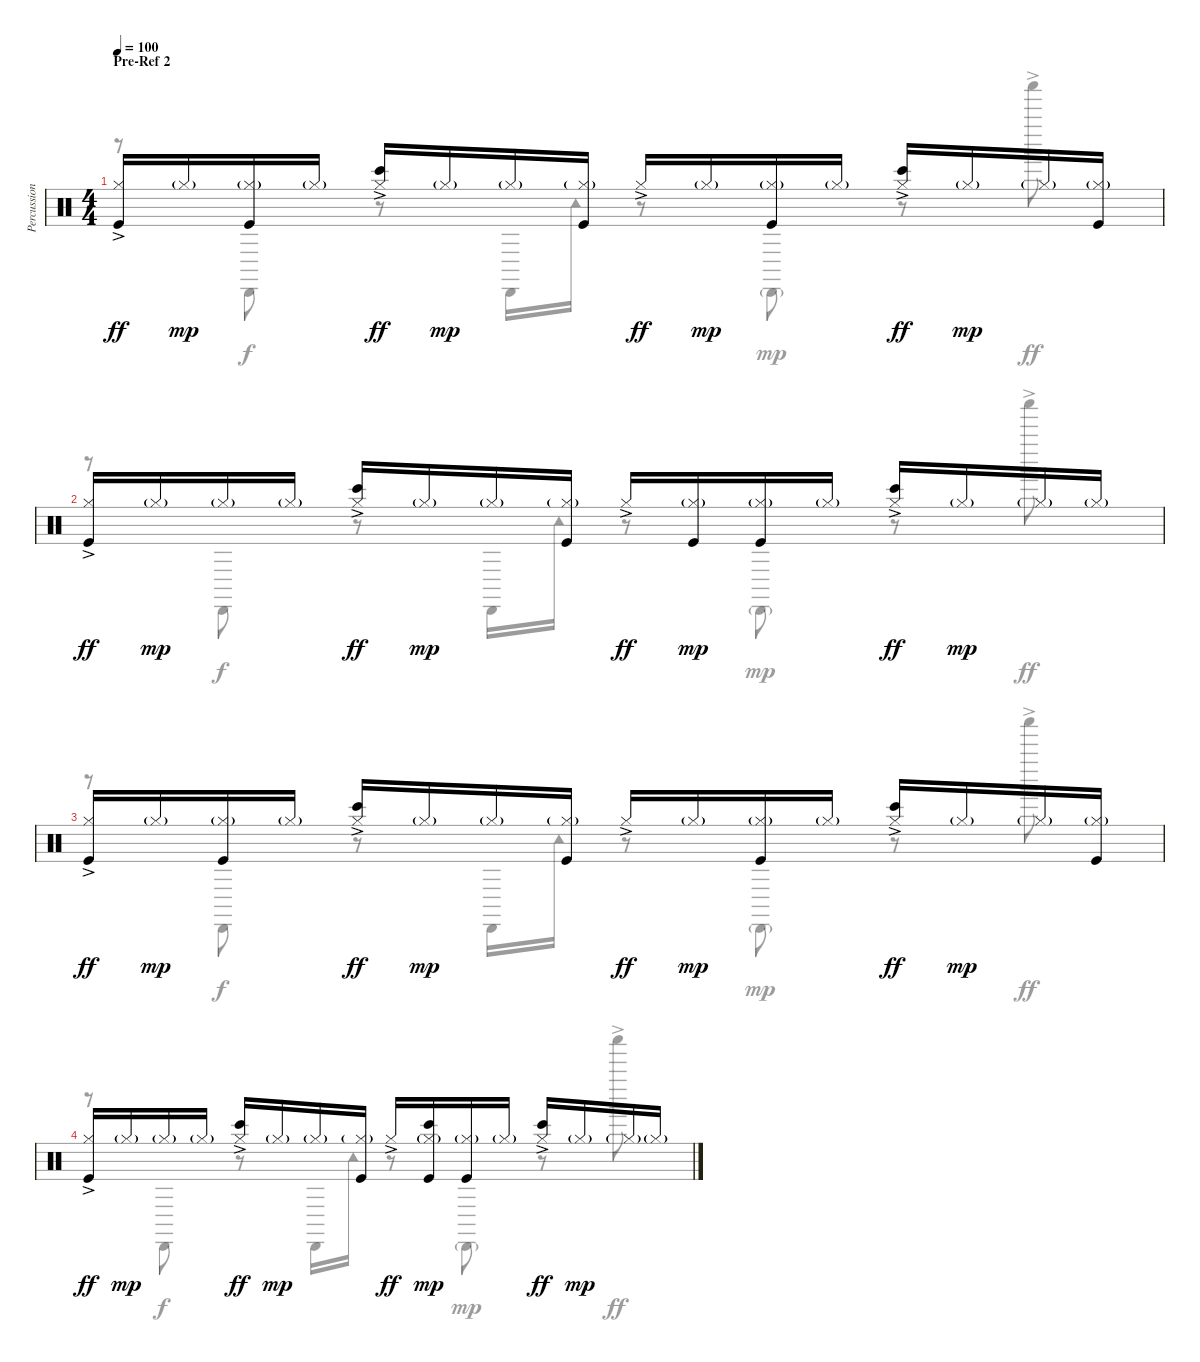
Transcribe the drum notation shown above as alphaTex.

\track ("Percussions" "Percussion") {instrument percussion}
\staff {score}
\articulation defaults
\voice
\ts (4 4)
\section ("" "Pre-Ref 2")
\tempo 100
\clef neutral
\ks c
("Kick (hit)" "Hi-Hat (closed)"{ac}).16{dy ff} "Hi-Hat (closed)"{g}.16{dy mp} ("Kick (hit)" "Hi-Hat (closed)"{g}).16 "Hi-Hat (closed)"{g}.16 ("Bongo High (hit)" "Hi-Hat (closed)"{ac}).16{dy ff} "Hi-Hat (closed)"{g}.16{dy mp} "Hi-Hat (closed)"{g}.16 ("Kick (hit)" "Hi-Hat (closed)"{g}).16 "Hi-Hat (closed)"{ac}.16{dy ff} "Hi-Hat (closed)"{g}.16{dy mp} ("Kick (hit)" "Hi-Hat (closed)"{g}).16 "Hi-Hat (closed)"{g}.16 ("Bongo High (hit)" "Hi-Hat (closed)"{ac}).16{dy ff} "Hi-Hat (closed)"{g}.16{dy mp} "Hi-Hat (closed)"{g}.16 ("Kick (hit)" "Hi-Hat (closed)"{g}).16 |
("Kick (hit)" "Hi-Hat (closed)"{ac}).16{dy ff} "Hi-Hat (closed)"{g}.16{dy mp} "Hi-Hat (closed)"{g}.16 "Hi-Hat (closed)"{g}.16 ("Bongo High (hit)" "Hi-Hat (closed)"{ac}).16{dy ff} "Hi-Hat (closed)"{g}.16{dy mp} "Hi-Hat (closed)"{g}.16 ("Kick (hit)" "Hi-Hat (closed)"{g}).16 "Hi-Hat (closed)"{ac}.16{dy ff} ("Kick (hit)" "Hi-Hat (closed)"{g}).16{dy mp} ("Kick (hit)" "Hi-Hat (closed)"{g}).16 "Hi-Hat (closed)"{g}.16 ("Bongo High (hit)" "Hi-Hat (closed)"{ac}).16{dy ff} "Hi-Hat (closed)"{g}.16{dy mp} "Hi-Hat (closed)"{g}.16 "Hi-Hat (closed)"{g}.16 |
("Kick (hit)" "Hi-Hat (closed)"{ac}).16{dy ff} "Hi-Hat (closed)"{g}.16{dy mp} ("Kick (hit)" "Hi-Hat (closed)"{g}).16 "Hi-Hat (closed)"{g}.16 ("Bongo High (hit)" "Hi-Hat (closed)"{ac}).16{dy ff} "Hi-Hat (closed)"{g}.16{dy mp} "Hi-Hat (closed)"{g}.16 ("Kick (hit)" "Hi-Hat (closed)"{g}).16 "Hi-Hat (closed)"{ac}.16{dy ff} "Hi-Hat (closed)"{g}.16{dy mp} ("Kick (hit)" "Hi-Hat (closed)"{g}).16 "Hi-Hat (closed)"{g}.16 ("Bongo High (hit)" "Hi-Hat (closed)"{ac}).16{dy ff} "Hi-Hat (closed)"{g}.16{dy mp} "Hi-Hat (closed)"{g}.16 ("Kick (hit)" "Hi-Hat (closed)"{g}).16 |
("Kick (hit)" "Hi-Hat (closed)"{ac}).16{dy ff} "Hi-Hat (closed)"{g}.16{dy mp} "Hi-Hat (closed)"{g}.16 "Hi-Hat (closed)"{g}.16 ("Bongo High (hit)" "Hi-Hat (closed)"{ac}).16{dy ff} "Hi-Hat (closed)"{g}.16{dy mp} "Hi-Hat (closed)"{g}.16 ("Kick (hit)" "Hi-Hat (closed)"{g}).16 "Hi-Hat (closed)"{ac}.16{dy ff} ("Kick (hit)" "Bongo High (hit)" "Hi-Hat (closed)"{g}).16{dy mp} ("Kick (hit)" "Hi-Hat (closed)"{g}).16 "Hi-Hat (closed)"{g}.16 ("Bongo High (hit)" "Hi-Hat (closed)"{ac}).16{dy ff} "Hi-Hat (closed)"{g}.16{dy mp} "Hi-Hat (closed)"{g}.16 "Hi-Hat (closed)"{g}.16
\voice
\clef neutral
\ottava regular
\simile none
\ks c
r.8{dy ff} "Cabasa (hit)".8{dy f} r.8 "Cabasa (hit)".16 "Tambourine (hit)".16 r.8 "Cabasa (hit)"{g}.8{dy mp} r.8 "Shaker (hit)"{ac}.8{dy ff} |
r.8 "Cabasa (hit)".8{dy f} r.8 "Cabasa (hit)".16 "Tambourine (hit)".16 r.8 "Cabasa (hit)"{g}.8{dy mp} r.8 "Shaker (hit)"{ac}.8{dy ff} |
r.8 "Cabasa (hit)".8{dy f} r.8 "Cabasa (hit)".16 "Tambourine (hit)".16 r.8 "Cabasa (hit)"{g}.8{dy mp} r.8 "Shaker (hit)"{ac}.8{dy ff} |
r.8 "Cabasa (hit)".8{dy f} r.8 "Cabasa (hit)".16 "Tambourine (hit)".16 r.8 "Cabasa (hit)"{g}.8{dy mp} r.8 "Shaker (hit)"{ac}.8{dy ff}
